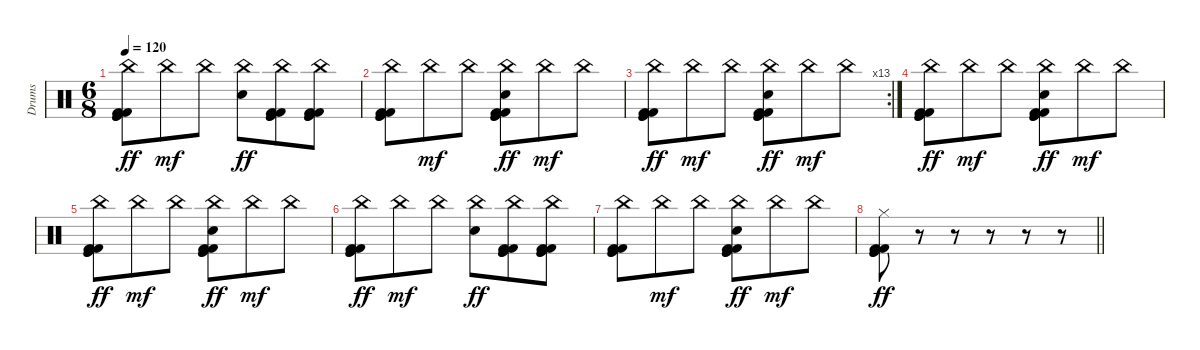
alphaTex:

\track ("Drums" "Drums") {instrument percussion}
\staff {score}
\articulation defaults
\ts (6 8)
\tempo 120
\clef neutral
\ks c
("China (hit)" "Kick (hit) 2" "Kick (hit) 2" "Kick (hit)" "Kick (hit)").8{dy ff} "China (hit)".8{dy mf} "China (hit)".8 ("China (hit)" "Snare (hit) 2").8{dy ff} ("China (hit)" "Kick (hit) 2" "Kick (hit) 2" "Kick (hit)" "Kick (hit)").8 ("China (hit)" "Kick (hit) 2" "Kick (hit) 2" "Kick (hit)" "Kick (hit)").8 |
("China (hit)" "Kick (hit) 2" "Kick (hit) 2" "Kick (hit)" "Kick (hit)").8 "China (hit)".8{dy mf} "China (hit)".8 ("China (hit)" "Snare (hit) 2" "Kick (hit) 2" "Kick (hit) 2" "Kick (hit)" "Kick (hit)").8{dy ff} "China (hit)".8{dy mf} "China (hit)".8 |
\rc 13
("China (hit)" "Kick (hit) 2" "Kick (hit) 2" "Kick (hit)" "Kick (hit)").8{dy ff} "China (hit)".8{dy mf} "China (hit)".8 ("China (hit)" "Snare (hit) 2" "Kick (hit) 2" "Kick (hit) 2" "Kick (hit)" "Kick (hit)").8{dy ff} "China (hit)".8{dy mf} "China (hit)".8 |
("China (hit)" "Kick (hit) 2" "Kick (hit) 2" "Kick (hit)" "Kick (hit)").8{dy ff} "China (hit)".8{dy mf} "China (hit)".8 ("China (hit)" "Snare (hit) 2" "Kick (hit) 2" "Kick (hit) 2" "Kick (hit)" "Kick (hit)").8{dy ff} "China (hit)".8{dy mf} "China (hit)".8 |
("China (hit)" "Kick (hit) 2" "Kick (hit) 2" "Kick (hit)" "Kick (hit)").8{dy ff} "China (hit)".8{dy mf} "China (hit)".8 ("China (hit)" "Snare (hit) 2" "Kick (hit) 2" "Kick (hit) 2" "Kick (hit)" "Kick (hit)").8{dy ff} "China (hit)".8{dy mf} "China (hit)".8 |
("China (hit)" "Kick (hit) 2" "Kick (hit) 2" "Kick (hit)" "Kick (hit)").8{dy ff} "China (hit)".8{dy mf} "China (hit)".8 ("China (hit)" "Snare (hit) 2").8{dy ff} ("China (hit)" "Kick (hit) 2" "Kick (hit) 2" "Kick (hit)" "Kick (hit)").8 ("China (hit)" "Kick (hit) 2" "Kick (hit) 2" "Kick (hit)" "Kick (hit)").8 |
("China (hit)" "Kick (hit) 2" "Kick (hit) 2" "Kick (hit)" "Kick (hit)").8 "China (hit)".8{dy mf} "China (hit)".8 ("China (hit)" "Snare (hit) 2" "Kick (hit) 2" "Kick (hit) 2" "Kick (hit)" "Kick (hit)").8{dy ff} "China (hit)".8{dy mf} "China (hit)".8 |
\barLineRight lightlight
("Hi-Hat (closed)" "Kick (hit) 2" "Kick (hit) 2" "Kick (hit)" "Kick (hit)").8{dy ff} r.8 r.8 r.8 r.8 r.8
